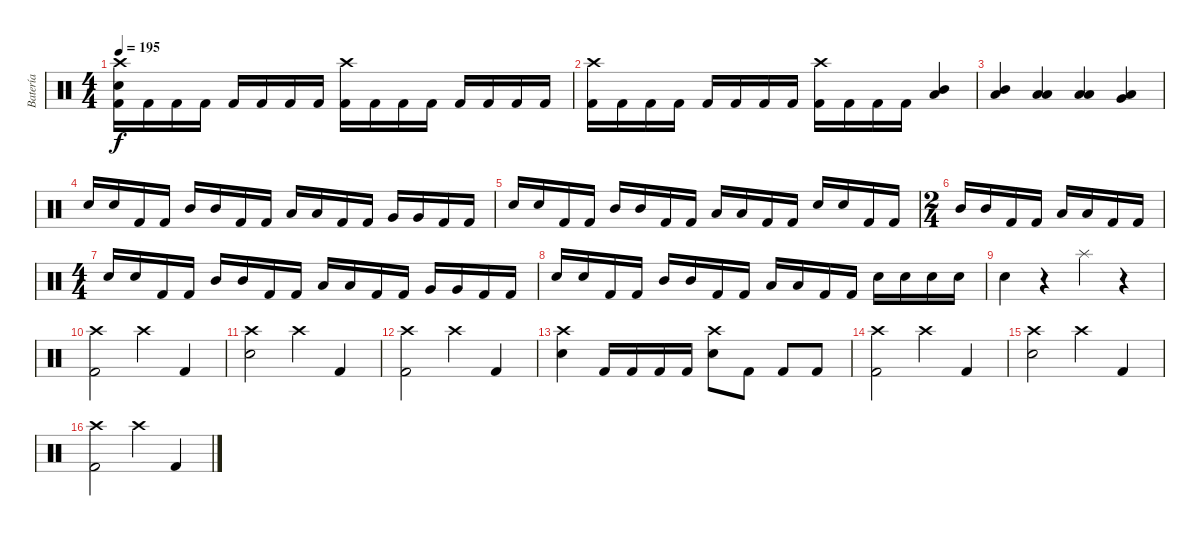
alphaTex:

\track ("Batería" "Batería") {instrument percussion}
\staff {score}
\articulation defaults
\ts (4 4)
\tempo 195
\clef neutral
\ks c
("Crash high (hit)" "Snare (hit) 2" "Kick (hit) 2").16{dy f} "Kick (hit) 2".16 "Kick (hit) 2".16 "Kick (hit) 2".16 "Kick (hit) 2".16 "Kick (hit) 2".16 "Kick (hit) 2".16 "Kick (hit) 2".16 ("Crash high (hit)" "Kick (hit) 2").16 "Kick (hit) 2".16 "Kick (hit) 2".16 "Kick (hit) 2".16 "Kick (hit) 2".16 "Kick (hit) 2".16 "Kick (hit) 2".16 "Kick (hit) 2".16 |
("Crash high (hit)" "Kick (hit) 2").16 "Kick (hit) 2".16 "Kick (hit) 2".16 "Kick (hit) 2".16 "Kick (hit) 2".16 "Kick (hit) 2".16 "Kick (hit) 2".16 "Kick (hit) 2".16 ("Crash high (hit)" "Kick (hit) 2").16 "Kick (hit) 2".16 "Kick (hit) 2".16 "Kick (hit) 2".16 ("Mid Tom (hit)" "Low Floor Tom (hit)").4 |
("Mid Tom (hit)" "Low Floor Tom (hit)").4 ("Low Tom (hit)" "Low Floor Tom (hit)").4 ("Low Tom (hit)" "Low Floor Tom (hit)").4 ("Very Low Tom (hit)" "Low Floor Tom (hit)").4 |
"Snare (hit) 2".16 "Snare (hit) 2".16 "Kick (hit) 2".16 "Kick (hit) 2".16 "Mid Tom (hit)".16 "Mid Tom (hit)".16 "Kick (hit) 2".16 "Kick (hit) 2".16 "Low Tom (hit)".16 "Low Tom (hit)".16 "Kick (hit) 2".16 "Kick (hit) 2".16 "Very Low Tom (hit)".16 "Very Low Tom (hit)".16 "Kick (hit) 2".16 "Kick (hit) 2".16 |
"Snare (hit) 2".16 "Snare (hit) 2".16 "Kick (hit) 2".16 "Kick (hit) 2".16 "Mid Tom (hit)".16 "Mid Tom (hit)".16 "Kick (hit) 2".16 "Kick (hit) 2".16 "Low Tom (hit)".16 "Low Tom (hit)".16 "Kick (hit) 2".16 "Kick (hit) 2".16 "Snare (hit) 2".16 "Snare (hit) 2".16 "Kick (hit) 2".16 "Kick (hit) 2".16 |
\ts (2 4)
"Mid Tom (hit)".16 "Mid Tom (hit)".16 "Kick (hit) 2".16 "Kick (hit) 2".16 "Low Tom (hit)".16 "Low Tom (hit)".16 "Kick (hit) 2".16 "Kick (hit) 2".16 |
\ts (4 4)
"Snare (hit) 2".16 "Snare (hit) 2".16 "Kick (hit) 2".16 "Kick (hit) 2".16 "Mid Tom (hit)".16 "Mid Tom (hit)".16 "Kick (hit) 2".16 "Kick (hit) 2".16 "Low Tom (hit)".16 "Low Tom (hit)".16 "Kick (hit) 2".16 "Kick (hit) 2".16 "Very Low Tom (hit)".16 "Very Low Tom (hit)".16 "Kick (hit) 2".16 "Kick (hit) 2".16 |
"Snare (hit) 2".16 "Snare (hit) 2".16 "Kick (hit) 2".16 "Kick (hit) 2".16 "Mid Tom (hit)".16 "Mid Tom (hit)".16 "Kick (hit) 2".16 "Kick (hit) 2".16 "Low Tom (hit)".16 "Low Tom (hit)".16 "Kick (hit) 2".16 "Kick (hit) 2".16 "Snare (hit) 2".16 "Snare (hit) 2".16 "Snare (hit) 2".16 "Snare (hit) 2".16 |
"Snare (hit) 2".4 r.4 "Splash (hit)".4 r.4 |
("Crash high (hit)" "Kick (hit) 2").2 "Crash high (hit)".4 "Kick (hit) 2".4 |
("Crash high (hit)" "Snare (hit) 2").2 "Crash high (hit)".4 "Kick (hit) 2".4 |
("Crash high (hit)" "Kick (hit) 2").2 "Crash high (hit)".4 "Kick (hit) 2".4 |
("Crash high (hit)" "Snare (hit) 2").4 "Kick (hit) 2".16 "Kick (hit) 2".16 "Kick (hit) 2".16 "Kick (hit) 2".16 ("Crash high (hit)" "Snare (hit) 2").8 "Kick (hit) 2".8 "Kick (hit) 2".8 "Kick (hit) 2".8 |
("Crash high (hit)" "Kick (hit) 2").2 "Crash high (hit)".4 "Kick (hit) 2".4 |
("Crash high (hit)" "Snare (hit) 2").2 "Crash high (hit)".4 "Kick (hit) 2".4 |
("Crash high (hit)" "Kick (hit) 2").2 "Crash high (hit)".4 "Kick (hit) 2".4
